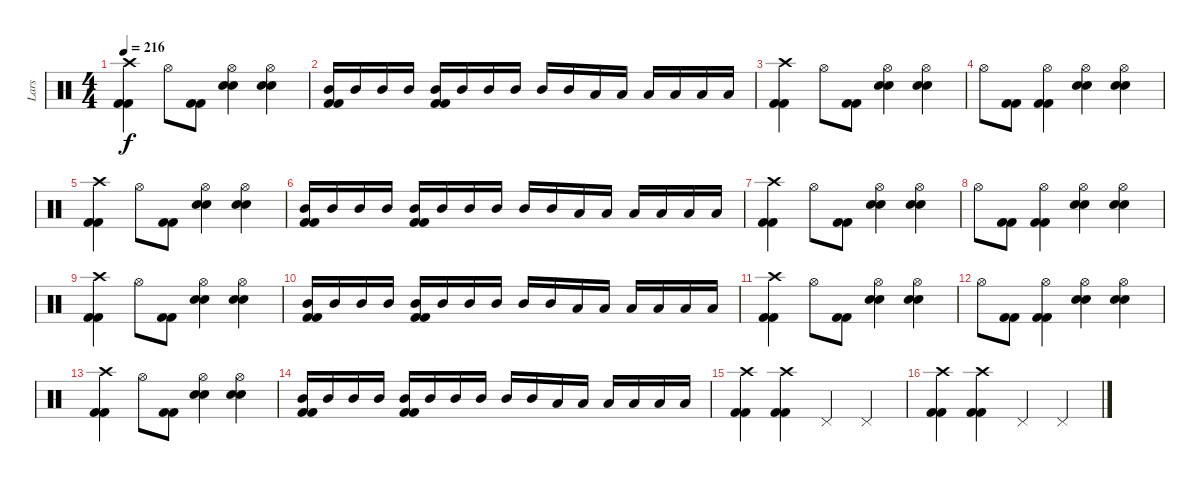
\track ("Lars" "Lars") {instrument percussion}
\staff {score}
\articulation defaults
\ts (4 4)
\tempo 216
\clef neutral
\ks c
("Crash high (hit)" "Kick (hit) 2" "Kick (hit) 2").4{dy f} "Hi-Hat (open)".8 ("Kick (hit) 2" "Kick (hit) 2").8 ("Hi-Hat (open)" "Electric Snare (hit)" "Electric Snare (hit)").4 ("Hi-Hat (open)" "Electric Snare (hit)" "Electric Snare (hit)").4 |
("Mid Tom (hit)" "Kick (hit) 2" "Kick (hit) 2").16 "Mid Tom (hit)".16 "Mid Tom (hit)".16 "Mid Tom (hit)".16 ("Mid Tom (hit)" "Kick (hit) 2" "Kick (hit) 2").16 "Mid Tom (hit)".16 "Mid Tom (hit)".16 "Mid Tom (hit)".16 "Mid Tom (hit)".16 "Mid Tom (hit)".16 "Low Tom (hit)".16 "Low Tom (hit)".16 "Low Tom (hit)".16 "Low Tom (hit)".16 "Low Tom (hit)".16 "Low Tom (hit)".16 |
("Crash high (hit)" "Kick (hit) 2" "Kick (hit) 2").4 "Hi-Hat (open)".8 ("Kick (hit) 2" "Kick (hit) 2").8 ("Hi-Hat (open)" "Electric Snare (hit)" "Electric Snare (hit)").4 ("Hi-Hat (open)" "Electric Snare (hit)" "Electric Snare (hit)").4 |
"Hi-Hat (open)".8 ("Kick (hit) 2" "Kick (hit) 2").8 ("Hi-Hat (open)" "Kick (hit) 2" "Kick (hit) 2").4 ("Hi-Hat (open)" "Electric Snare (hit)" "Electric Snare (hit)").4 ("Hi-Hat (open)" "Electric Snare (hit)" "Electric Snare (hit)").4 |
("Crash high (hit)" "Kick (hit) 2" "Kick (hit) 2").4 "Hi-Hat (open)".8 ("Kick (hit) 2" "Kick (hit) 2").8 ("Hi-Hat (open)" "Electric Snare (hit)" "Electric Snare (hit)").4 ("Hi-Hat (open)" "Electric Snare (hit)" "Electric Snare (hit)").4 |
("Mid Tom (hit)" "Kick (hit) 2" "Kick (hit) 2").16 "Mid Tom (hit)".16 "Mid Tom (hit)".16 "Mid Tom (hit)".16 ("Mid Tom (hit)" "Kick (hit) 2" "Kick (hit) 2").16 "Mid Tom (hit)".16 "Mid Tom (hit)".16 "Mid Tom (hit)".16 "Mid Tom (hit)".16 "Mid Tom (hit)".16 "Low Tom (hit)".16 "Low Tom (hit)".16 "Low Tom (hit)".16 "Low Tom (hit)".16 "Low Tom (hit)".16 "Low Tom (hit)".16 |
("Crash high (hit)" "Kick (hit) 2" "Kick (hit) 2").4 "Hi-Hat (open)".8 ("Kick (hit) 2" "Kick (hit) 2").8 ("Hi-Hat (open)" "Electric Snare (hit)" "Electric Snare (hit)").4 ("Hi-Hat (open)" "Electric Snare (hit)" "Electric Snare (hit)").4 |
"Hi-Hat (open)".8 ("Kick (hit) 2" "Kick (hit) 2").8 ("Hi-Hat (open)" "Kick (hit) 2" "Kick (hit) 2").4 ("Hi-Hat (open)" "Electric Snare (hit)" "Electric Snare (hit)").4 ("Hi-Hat (open)" "Electric Snare (hit)" "Electric Snare (hit)").4 |
("Crash high (hit)" "Kick (hit) 2" "Kick (hit) 2").4 "Hi-Hat (open)".8 ("Kick (hit) 2" "Kick (hit) 2").8 ("Hi-Hat (open)" "Electric Snare (hit)" "Electric Snare (hit)").4 ("Hi-Hat (open)" "Electric Snare (hit)" "Electric Snare (hit)").4 |
("Mid Tom (hit)" "Kick (hit) 2" "Kick (hit) 2").16 "Mid Tom (hit)".16 "Mid Tom (hit)".16 "Mid Tom (hit)".16 ("Mid Tom (hit)" "Kick (hit) 2" "Kick (hit) 2").16 "Mid Tom (hit)".16 "Mid Tom (hit)".16 "Mid Tom (hit)".16 "Mid Tom (hit)".16 "Mid Tom (hit)".16 "Low Tom (hit)".16 "Low Tom (hit)".16 "Low Tom (hit)".16 "Low Tom (hit)".16 "Low Tom (hit)".16 "Low Tom (hit)".16 |
("Crash high (hit)" "Kick (hit) 2" "Kick (hit) 2").4 "Hi-Hat (open)".8 ("Kick (hit) 2" "Kick (hit) 2").8 ("Hi-Hat (open)" "Electric Snare (hit)" "Electric Snare (hit)").4 ("Hi-Hat (open)" "Electric Snare (hit)" "Electric Snare (hit)").4 |
"Hi-Hat (open)".8 ("Kick (hit) 2" "Kick (hit) 2").8 ("Hi-Hat (open)" "Kick (hit) 2" "Kick (hit) 2").4 ("Hi-Hat (open)" "Electric Snare (hit)" "Electric Snare (hit)").4 ("Hi-Hat (open)" "Electric Snare (hit)" "Electric Snare (hit)").4 |
("Crash high (hit)" "Kick (hit) 2" "Kick (hit) 2").4 "Hi-Hat (open)".8 ("Kick (hit) 2" "Kick (hit) 2").8 ("Hi-Hat (open)" "Electric Snare (hit)" "Electric Snare (hit)").4 ("Hi-Hat (open)" "Electric Snare (hit)" "Electric Snare (hit)").4 |
("Mid Tom (hit)" "Kick (hit) 2" "Kick (hit) 2").16 "Mid Tom (hit)".16 "Mid Tom (hit)".16 "Mid Tom (hit)".16 ("Mid Tom (hit)" "Kick (hit) 2" "Kick (hit) 2").16 "Mid Tom (hit)".16 "Mid Tom (hit)".16 "Mid Tom (hit)".16 "Mid Tom (hit)".16 "Mid Tom (hit)".16 "Low Tom (hit)".16 "Low Tom (hit)".16 "Low Tom (hit)".16 "Low Tom (hit)".16 "Low Tom (hit)".16 "Low Tom (hit)".16 |
("Crash high (hit)" "Kick (hit) 2" "Kick (hit) 2").4 ("Crash high (hit)" "Kick (hit) 2" "Kick (hit) 2").4 "Pedal Hi-Hat (hit)".4 "Pedal Hi-Hat (hit)".4 |
("Crash high (hit)" "Kick (hit) 2" "Kick (hit) 2").4 ("Crash high (hit)" "Kick (hit) 2" "Kick (hit) 2").4 "Pedal Hi-Hat (hit)".4 "Pedal Hi-Hat (hit)".4
